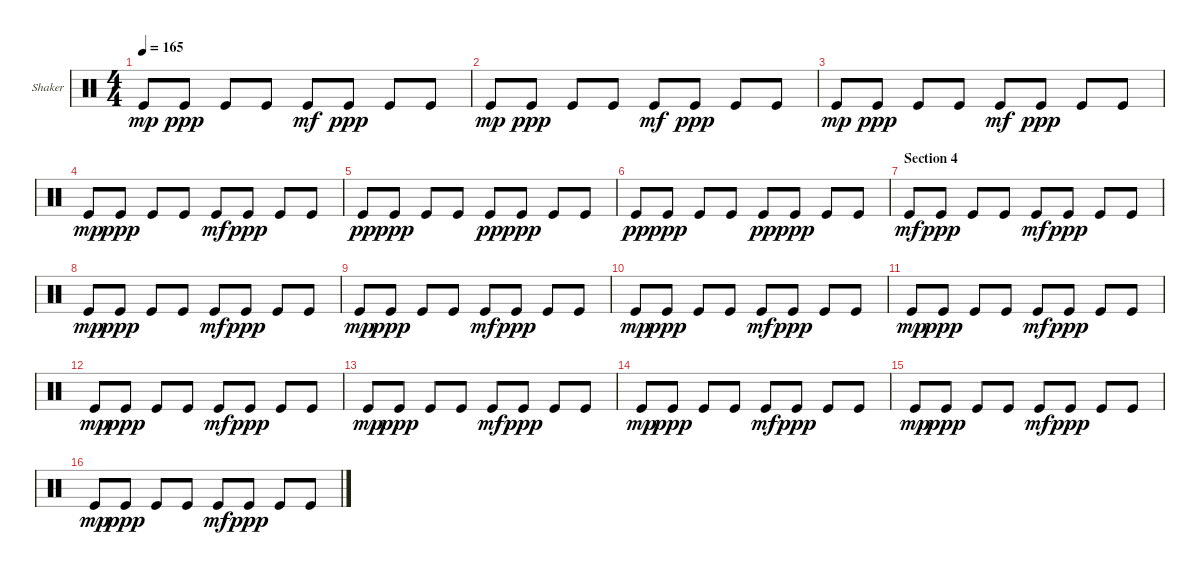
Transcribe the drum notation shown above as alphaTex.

\bracketExtendMode groupsimilarinstruments
\firstSystemTrackNameOrientation horizontal
\otherSystemsTrackNameOrientation horizontal
\track ("Shaker" "Shaker") {instrument percussion}
\staff {score}
\articulation defaults
\ts (4 4)
\tempo 165
\clef neutral
\ks c "Kick (hit)".8{dy mp} "Kick (hit)".8{dy ppp} "Kick (hit)".8 "Kick (hit)".8 "Kick (hit)".8{dy mf} "Kick (hit)".8{dy ppp} "Kick (hit)".8 "Kick (hit)".8
|
"Kick (hit)".8{dy mp} "Kick (hit)".8{dy ppp} "Kick (hit)".8 "Kick (hit)".8 "Kick (hit)".8{dy mf} "Kick (hit)".8{dy ppp} "Kick (hit)".8 "Kick (hit)".8 |
"Kick (hit)".8{dy mp} "Kick (hit)".8{dy ppp} "Kick (hit)".8 "Kick (hit)".8 "Kick (hit)".8{dy mf} "Kick (hit)".8{dy ppp} "Kick (hit)".8 "Kick (hit)".8 |
"Kick (hit)".8{dy mp} "Kick (hit)".8{dy ppp} "Kick (hit)".8 "Kick (hit)".8 "Kick (hit)".8{dy mf} "Kick (hit)".8{dy ppp} "Kick (hit)".8 "Kick (hit)".8 |
"Kick (hit)".8{dy pp} "Kick (hit)".8{dy ppp} "Kick (hit)".8 "Kick (hit)".8 "Kick (hit)".8{dy pp} "Kick (hit)".8{dy ppp} "Kick (hit)".8 "Kick (hit)".8 |
"Kick (hit)".8{dy pp} "Kick (hit)".8{dy ppp} "Kick (hit)".8 "Kick (hit)".8 "Kick (hit)".8{dy pp} "Kick (hit)".8{dy ppp} "Kick (hit)".8 "Kick (hit)".8 |
\section ("" "Section 4")
"Kick (hit)".8{dy mf} "Kick (hit)".8{dy ppp} "Kick (hit)".8 "Kick (hit)".8 "Kick (hit)".8{dy mf} "Kick (hit)".8{dy ppp} "Kick (hit)".8 "Kick (hit)".8 |
"Kick (hit)".8{dy mp} "Kick (hit)".8{dy ppp} "Kick (hit)".8 "Kick (hit)".8 "Kick (hit)".8{dy mf} "Kick (hit)".8{dy ppp} "Kick (hit)".8 "Kick (hit)".8 |
"Kick (hit)".8{dy mp} "Kick (hit)".8{dy ppp} "Kick (hit)".8 "Kick (hit)".8 "Kick (hit)".8{dy mf} "Kick (hit)".8{dy ppp} "Kick (hit)".8 "Kick (hit)".8 |
"Kick (hit)".8{dy mp} "Kick (hit)".8{dy ppp} "Kick (hit)".8 "Kick (hit)".8 "Kick (hit)".8{dy mf} "Kick (hit)".8{dy ppp} "Kick (hit)".8 "Kick (hit)".8 |
"Kick (hit)".8{dy mp} "Kick (hit)".8{dy ppp} "Kick (hit)".8 "Kick (hit)".8 "Kick (hit)".8{dy mf} "Kick (hit)".8{dy ppp} "Kick (hit)".8 "Kick (hit)".8 |
"Kick (hit)".8{dy mp} "Kick (hit)".8{dy ppp} "Kick (hit)".8 "Kick (hit)".8 "Kick (hit)".8{dy mf} "Kick (hit)".8{dy ppp} "Kick (hit)".8 "Kick (hit)".8 |
"Kick (hit)".8{dy mp} "Kick (hit)".8{dy ppp} "Kick (hit)".8 "Kick (hit)".8 "Kick (hit)".8{dy mf} "Kick (hit)".8{dy ppp} "Kick (hit)".8 "Kick (hit)".8 |
"Kick (hit)".8{dy mp} "Kick (hit)".8{dy ppp} "Kick (hit)".8 "Kick (hit)".8 "Kick (hit)".8{dy mf} "Kick (hit)".8{dy ppp} "Kick (hit)".8 "Kick (hit)".8 |
"Kick (hit)".8{dy mp} "Kick (hit)".8{dy ppp} "Kick (hit)".8 "Kick (hit)".8 "Kick (hit)".8{dy mf} "Kick (hit)".8{dy ppp} "Kick (hit)".8 "Kick (hit)".8 |
"Kick (hit)".8{dy mp} "Kick (hit)".8{dy ppp} "Kick (hit)".8 "Kick (hit)".8 "Kick (hit)".8{dy mf} "Kick (hit)".8{dy ppp} "Kick (hit)".8 "Kick (hit)".8
